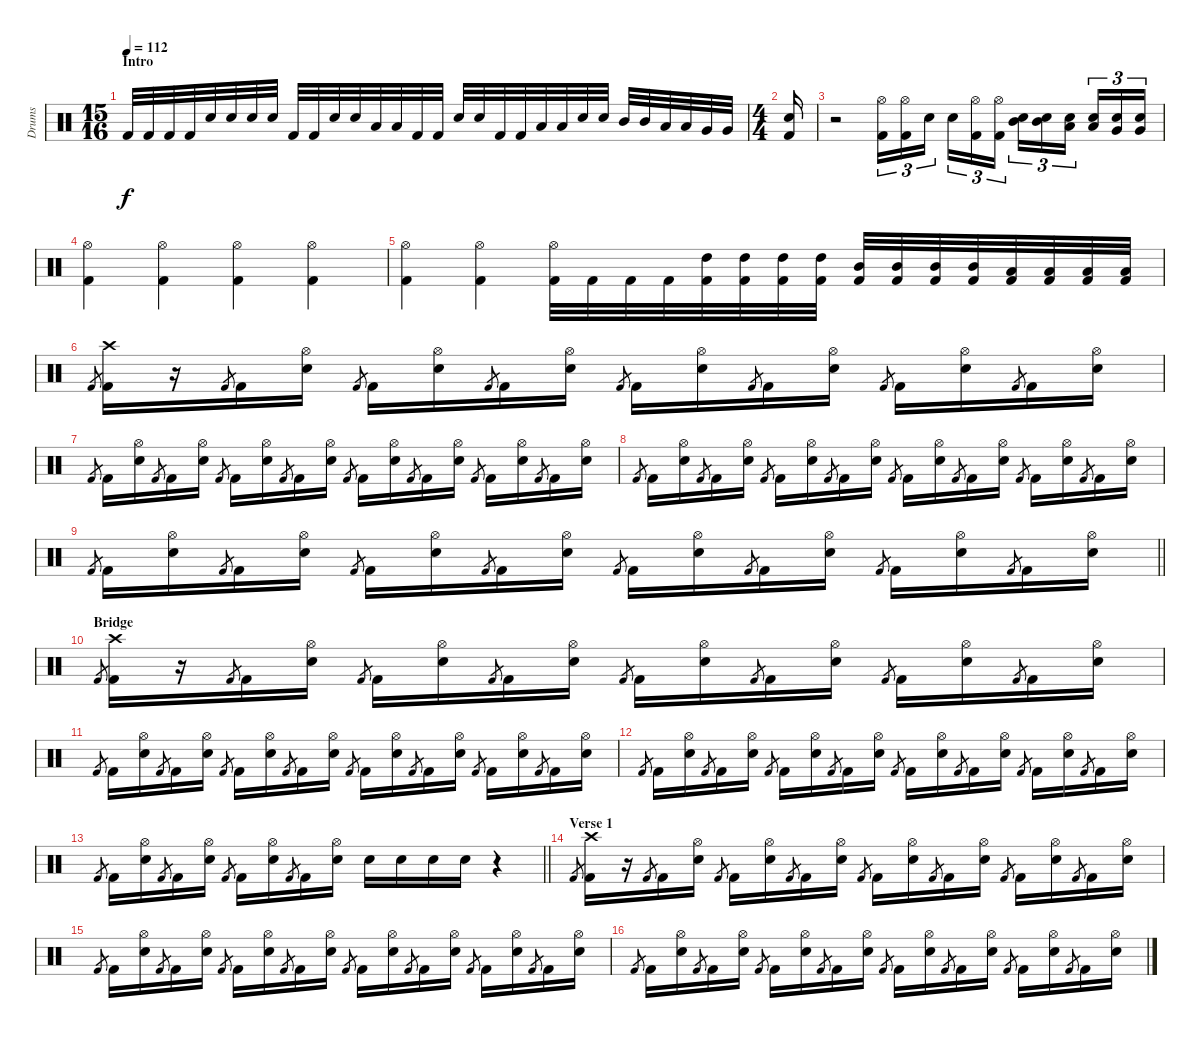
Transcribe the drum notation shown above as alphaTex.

\track ("Drums" "Drums") {instrument percussion}
\staff {score}
\articulation defaults
\ts (15 16)
\section ("" "Intro")
\tempo 112
\clef neutral
\ks c "Kick (hit) 2".32{dy f} "Kick (hit) 2".32 "Kick (hit) 2".32 "Kick (hit) 2".32 "Snare (hit) 2".32 "Snare (hit) 2".32 "Snare (hit) 2".32 "Snare (hit) 2".32 "Kick (hit) 2".32 "Kick (hit) 2".32 "Snare (hit) 2".32 "Snare (hit) 2".32 "Low Tom (hit)".32 "Low Tom (hit)".32 "Kick (hit) 2".32 "Kick (hit) 2".32 "Snare (hit) 2".32 "Snare (hit) 2".32 "Kick (hit) 2".32 "Kick (hit) 2".32 "Low Tom (hit)".32 "Low Tom (hit)".32 "Snare (hit) 2".32 "Snare (hit) 2".32 "Mid Tom (hit)".32 "Mid Tom (hit)".32 "Low Tom (hit)".32 "Low Tom (hit)".32 "Very Low Tom (hit)".32 "Very Low Tom (hit)".32
|
\ts (4 4)
("Snare (hit) 2" "Kick (hit) 2").16 |
r.2 ("Hi-Hat (open)" "Kick (hit) 2").16{tu (3 2)} ("Hi-Hat (open)" "Kick (hit) 2").16{tu (3 2)} "Snare (hit) 2".16{tu (3 2) beam splitsecondary} "Snare (hit) 2".16{tu (3 2)} ("Hi-Hat (open)" "Kick (hit) 2").16{tu (3 2)} ("Hi-Hat (open)" "Kick (hit) 2").16{tu (3 2)} ("Snare (hit) 2" "Mid Tom (hit)").16{tu (3 2)} ("Snare (hit) 2" "Mid Tom (hit)").16{tu (3 2)} ("Snare (hit) 2" "Low Tom (hit)").16{tu (3 2) beam splitsecondary} ("Snare (hit) 2" "Low Tom (hit)").16{tu (3 2)} ("Snare (hit) 2" "Very Low Tom (hit)").16{tu (3 2)} ("Snare (hit) 2" "Very Low Tom (hit)").16{tu (3 2)} |
("Hi-Hat (open)" "Kick (hit) 2").4 ("Hi-Hat (open)" "Kick (hit) 2").4 ("Hi-Hat (open)" "Kick (hit) 2").4 ("Hi-Hat (open)" "Kick (hit) 2").4 |
("Hi-Hat (open)" "Kick (hit) 2").4 ("Hi-Hat (open)" "Kick (hit) 2").4 ("Hi-Hat (open)" "Kick (hit) 2").32 "Kick (hit) 2".32 "Kick (hit) 2".32 "Kick (hit) 2".32 ("High Tom (hit)" "Kick (hit) 2").32 ("High Tom (hit)" "Kick (hit) 2").32 ("High Tom (hit)" "Kick (hit) 2").32 ("High Tom (hit)" "Kick (hit) 2").32 ("Mid Tom (hit)" "Kick (hit) 2").32 ("Mid Tom (hit)" "Kick (hit) 2").32 ("Mid Tom (hit)" "Kick (hit) 2").32 ("Mid Tom (hit)" "Kick (hit) 2").32 ("Low Tom (hit)" "Kick (hit) 2").32 ("Low Tom (hit)" "Kick (hit) 2").32 ("Low Tom (hit)" "Kick (hit) 2").32 ("Low Tom (hit)" "Kick (hit) 2").32 |
"Kick (hit) 2".8{gr} ("Crash high (hit)" "Kick (hit) 2").16 r.16 "Kick (hit) 2".8{gr} "Kick (hit) 2".16 ("Hi-Hat (open)" "Snare (hit) 2").16 "Kick (hit) 2".8{gr} "Kick (hit) 2".16 ("Hi-Hat (open)" "Snare (hit) 2").16 "Kick (hit) 2".8{gr} "Kick (hit) 2".16 ("Hi-Hat (open)" "Snare (hit) 2").16 "Kick (hit) 2".8{gr} "Kick (hit) 2".16 ("Hi-Hat (open)" "Snare (hit) 2").16 "Kick (hit) 2".8{gr} "Kick (hit) 2".16 ("Hi-Hat (open)" "Snare (hit) 2").16 "Kick (hit) 2".8{gr} "Kick (hit) 2".16 ("Hi-Hat (open)" "Snare (hit) 2").16 "Kick (hit) 2".8{gr} "Kick (hit) 2".16 ("Hi-Hat (open)" "Snare (hit) 2").16 |
"Kick (hit) 2".8{gr} "Kick (hit) 2".16 ("Hi-Hat (open)" "Snare (hit) 2").16 "Kick (hit) 2".8{gr} "Kick (hit) 2".16 ("Hi-Hat (open)" "Snare (hit) 2").16 "Kick (hit) 2".8{gr} "Kick (hit) 2".16 ("Hi-Hat (open)" "Snare (hit) 2").16 "Kick (hit) 2".8{gr} "Kick (hit) 2".16 ("Hi-Hat (open)" "Snare (hit) 2").16 "Kick (hit) 2".8{gr} "Kick (hit) 2".16 ("Hi-Hat (open)" "Snare (hit) 2").16 "Kick (hit) 2".8{gr} "Kick (hit) 2".16 ("Hi-Hat (open)" "Snare (hit) 2").16 "Kick (hit) 2".8{gr} "Kick (hit) 2".16 ("Hi-Hat (open)" "Snare (hit) 2").16 "Kick (hit) 2".8{gr} "Kick (hit) 2".16 ("Hi-Hat (open)" "Snare (hit) 2").16 |
"Kick (hit) 2".8{gr} "Kick (hit) 2".16 ("Hi-Hat (open)" "Snare (hit) 2").16 "Kick (hit) 2".8{gr} "Kick (hit) 2".16 ("Hi-Hat (open)" "Snare (hit) 2").16 "Kick (hit) 2".8{gr} "Kick (hit) 2".16 ("Hi-Hat (open)" "Snare (hit) 2").16 "Kick (hit) 2".8{gr} "Kick (hit) 2".16 ("Hi-Hat (open)" "Snare (hit) 2").16 "Kick (hit) 2".8{gr} "Kick (hit) 2".16 ("Hi-Hat (open)" "Snare (hit) 2").16 "Kick (hit) 2".8{gr} "Kick (hit) 2".16 ("Hi-Hat (open)" "Snare (hit) 2").16 "Kick (hit) 2".8{gr} "Kick (hit) 2".16 ("Hi-Hat (open)" "Snare (hit) 2").16 "Kick (hit) 2".8{gr} "Kick (hit) 2".16 ("Hi-Hat (open)" "Snare (hit) 2").16 |
\barLineRight lightlight "Kick (hit) 2".8{gr} "Kick (hit) 2".16
("Hi-Hat (open)" "Snare (hit) 2").16 "Kick (hit) 2".8{gr} "Kick (hit) 2".16 ("Hi-Hat (open)" "Snare (hit) 2").16 "Kick (hit) 2".8{gr} "Kick (hit) 2".16 ("Hi-Hat (open)" "Snare (hit) 2").16 "Kick (hit) 2".8{gr} "Kick (hit) 2".16 ("Hi-Hat (open)" "Snare (hit) 2").16 "Kick (hit) 2".8{gr} "Kick (hit) 2".16 ("Hi-Hat (open)" "Snare (hit) 2").16 "Kick (hit) 2".8{gr} "Kick (hit) 2".16 ("Hi-Hat (open)" "Snare (hit) 2").16 "Kick (hit) 2".8{gr} "Kick (hit) 2".16 ("Hi-Hat (open)" "Snare (hit) 2").16 "Kick (hit) 2".8{gr} "Kick (hit) 2".16 ("Hi-Hat (open)" "Snare (hit) 2").16 |
\section ("" "Bridge")
"Kick (hit) 2".8{gr} ("Crash high (hit)" "Kick (hit) 2").16 r.16 "Kick (hit) 2".8{gr} "Kick (hit) 2".16 ("Hi-Hat (open)" "Snare (hit) 2").16 "Kick (hit) 2".8{gr} "Kick (hit) 2".16 ("Hi-Hat (open)" "Snare (hit) 2").16 "Kick (hit) 2".8{gr} "Kick (hit) 2".16 ("Hi-Hat (open)" "Snare (hit) 2").16 "Kick (hit) 2".8{gr} "Kick (hit) 2".16 ("Hi-Hat (open)" "Snare (hit) 2").16 "Kick (hit) 2".8{gr} "Kick (hit) 2".16 ("Hi-Hat (open)" "Snare (hit) 2").16 "Kick (hit) 2".8{gr} "Kick (hit) 2".16 ("Hi-Hat (open)" "Snare (hit) 2").16 "Kick (hit) 2".8{gr} "Kick (hit) 2".16 ("Hi-Hat (open)" "Snare (hit) 2").16 |
"Kick (hit) 2".8{gr} "Kick (hit) 2".16 ("Hi-Hat (open)" "Snare (hit) 2").16 "Kick (hit) 2".8{gr} "Kick (hit) 2".16 ("Hi-Hat (open)" "Snare (hit) 2").16 "Kick (hit) 2".8{gr} "Kick (hit) 2".16 ("Hi-Hat (open)" "Snare (hit) 2").16 "Kick (hit) 2".8{gr} "Kick (hit) 2".16 ("Hi-Hat (open)" "Snare (hit) 2").16 "Kick (hit) 2".8{gr} "Kick (hit) 2".16 ("Hi-Hat (open)" "Snare (hit) 2").16 "Kick (hit) 2".8{gr} "Kick (hit) 2".16 ("Hi-Hat (open)" "Snare (hit) 2").16 "Kick (hit) 2".8{gr} "Kick (hit) 2".16 ("Hi-Hat (open)" "Snare (hit) 2").16 "Kick (hit) 2".8{gr} "Kick (hit) 2".16 ("Hi-Hat (open)" "Snare (hit) 2").16 |
"Kick (hit) 2".8{gr} "Kick (hit) 2".16 ("Hi-Hat (open)" "Snare (hit) 2").16 "Kick (hit) 2".8{gr} "Kick (hit) 2".16 ("Hi-Hat (open)" "Snare (hit) 2").16 "Kick (hit) 2".8{gr} "Kick (hit) 2".16 ("Hi-Hat (open)" "Snare (hit) 2").16 "Kick (hit) 2".8{gr} "Kick (hit) 2".16 ("Hi-Hat (open)" "Snare (hit) 2").16 "Kick (hit) 2".8{gr} "Kick (hit) 2".16 ("Hi-Hat (open)" "Snare (hit) 2").16 "Kick (hit) 2".8{gr} "Kick (hit) 2".16 ("Hi-Hat (open)" "Snare (hit) 2").16 "Kick (hit) 2".8{gr} "Kick (hit) 2".16 ("Hi-Hat (open)" "Snare (hit) 2").16 "Kick (hit) 2".8{gr} "Kick (hit) 2".16 ("Hi-Hat (open)" "Snare (hit) 2").16 |
\barLineRight lightlight "Kick (hit) 2".8{gr} "Kick (hit) 2".16
("Hi-Hat (open)" "Snare (hit) 2").16 "Kick (hit) 2".8{gr} "Kick (hit) 2".16 ("Hi-Hat (open)" "Snare (hit) 2").16 "Kick (hit) 2".8{gr} "Kick (hit) 2".16 ("Hi-Hat (open)" "Snare (hit) 2").16 "Kick (hit) 2".8{gr} "Kick (hit) 2".16 ("Hi-Hat (open)" "Snare (hit) 2").16 "Snare (hit) 2".16 "Snare (hit) 2".16 "Snare (hit) 2".16 "Snare (hit) 2".16 r.4 |
\section ("" "Verse 1")
"Kick (hit) 2".8{gr} ("Crash high (hit)" "Kick (hit) 2").16 r.16 "Kick (hit) 2".8{gr} "Kick (hit) 2".16 ("Hi-Hat (open)" "Snare (hit) 2").16 "Kick (hit) 2".8{gr} "Kick (hit) 2".16 ("Hi-Hat (open)" "Snare (hit) 2").16 "Kick (hit) 2".8{gr} "Kick (hit) 2".16 ("Hi-Hat (open)" "Snare (hit) 2").16 "Kick (hit) 2".8{gr} "Kick (hit) 2".16 ("Hi-Hat (open)" "Snare (hit) 2").16 "Kick (hit) 2".8{gr} "Kick (hit) 2".16 ("Hi-Hat (open)" "Snare (hit) 2").16 "Kick (hit) 2".8{gr} "Kick (hit) 2".16 ("Hi-Hat (open)" "Snare (hit) 2").16 "Kick (hit) 2".8{gr} "Kick (hit) 2".16 ("Hi-Hat (open)" "Snare (hit) 2").16 |
"Kick (hit) 2".8{gr} "Kick (hit) 2".16 ("Hi-Hat (open)" "Snare (hit) 2").16 "Kick (hit) 2".8{gr} "Kick (hit) 2".16 ("Hi-Hat (open)" "Snare (hit) 2").16 "Kick (hit) 2".8{gr} "Kick (hit) 2".16 ("Hi-Hat (open)" "Snare (hit) 2").16 "Kick (hit) 2".8{gr} "Kick (hit) 2".16 ("Hi-Hat (open)" "Snare (hit) 2").16 "Kick (hit) 2".8{gr} "Kick (hit) 2".16 ("Hi-Hat (open)" "Snare (hit) 2").16 "Kick (hit) 2".8{gr} "Kick (hit) 2".16 ("Hi-Hat (open)" "Snare (hit) 2").16 "Kick (hit) 2".8{gr} "Kick (hit) 2".16 ("Hi-Hat (open)" "Snare (hit) 2").16 "Kick (hit) 2".8{gr} "Kick (hit) 2".16 ("Hi-Hat (open)" "Snare (hit) 2").16 |
"Kick (hit) 2".8{gr} "Kick (hit) 2".16 ("Hi-Hat (open)" "Snare (hit) 2").16 "Kick (hit) 2".8{gr} "Kick (hit) 2".16 ("Hi-Hat (open)" "Snare (hit) 2").16 "Kick (hit) 2".8{gr} "Kick (hit) 2".16 ("Hi-Hat (open)" "Snare (hit) 2").16 "Kick (hit) 2".8{gr} "Kick (hit) 2".16 ("Hi-Hat (open)" "Snare (hit) 2").16 "Kick (hit) 2".8{gr} "Kick (hit) 2".16 ("Hi-Hat (open)" "Snare (hit) 2").16 "Kick (hit) 2".8{gr} "Kick (hit) 2".16 ("Hi-Hat (open)" "Snare (hit) 2").16 "Kick (hit) 2".8{gr} "Kick (hit) 2".16 ("Hi-Hat (open)" "Snare (hit) 2").16 "Kick (hit) 2".8{gr} "Kick (hit) 2".16 ("Hi-Hat (open)" "Snare (hit) 2").16
